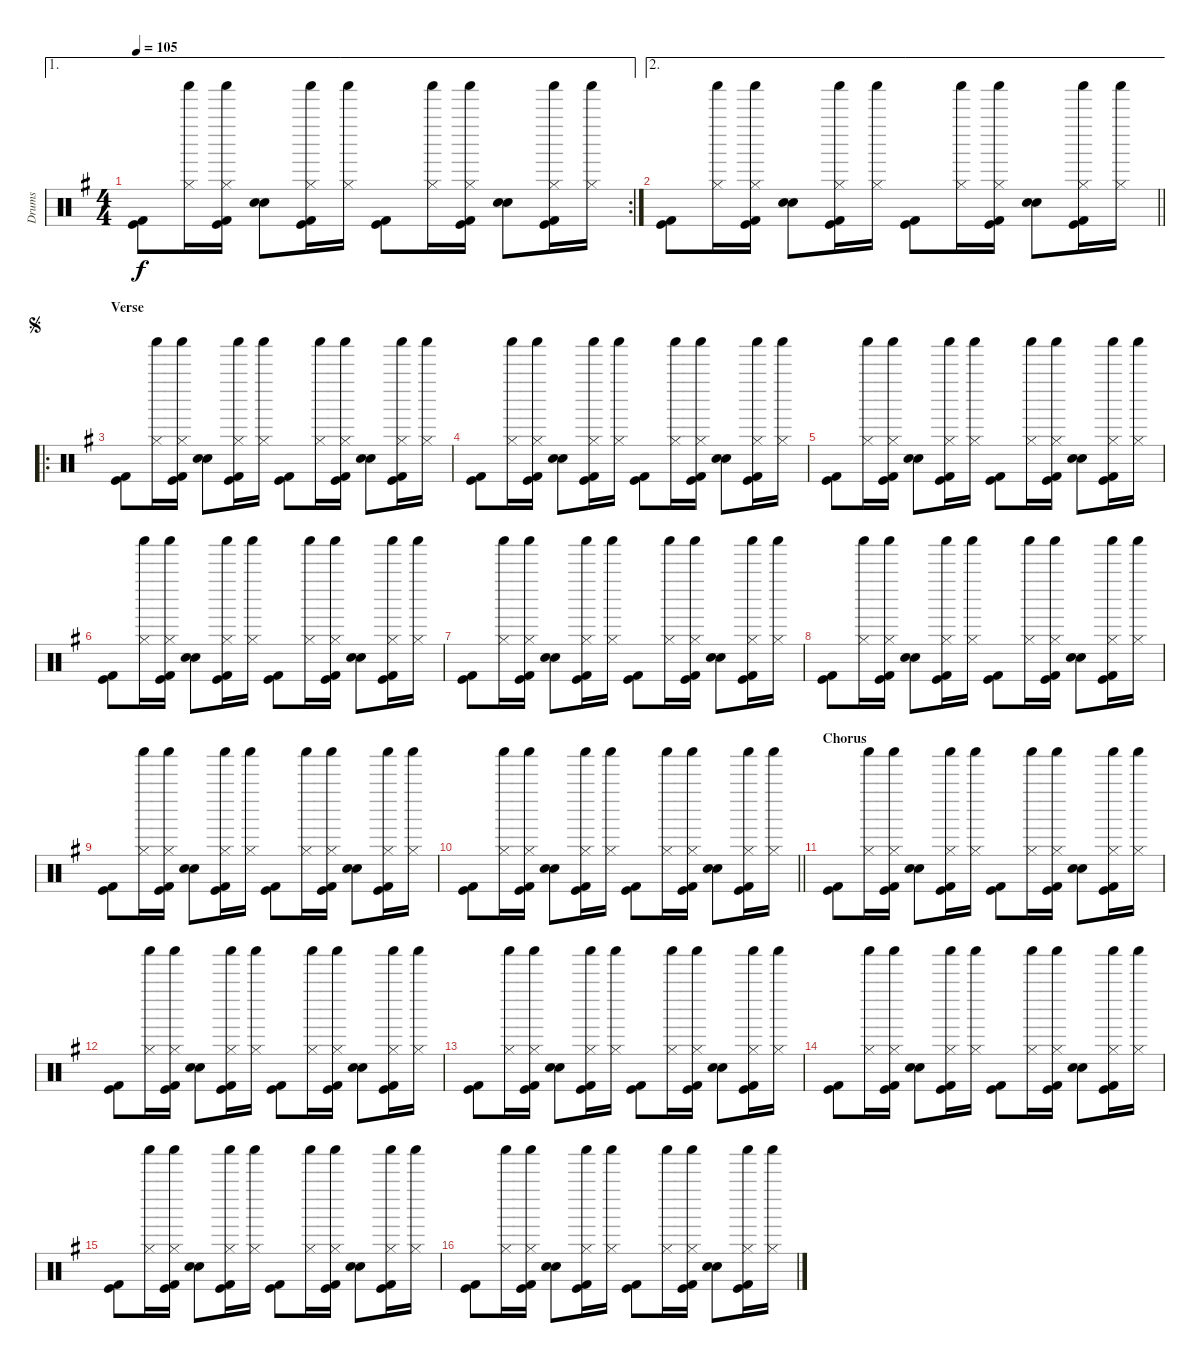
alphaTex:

\track ("Drums" "Drums") {instrument percussion}
\staff {score}
\articulation defaults
\ae 1
\rc 2
\ts (4 4)
\tempo 105
\clef neutral
\ks g
("Kick (hit)" "Kick (hit) 2").8{dy f} ("Shaker (hit)" "Hi-Hat (closed)").16 ("Shaker (hit)" "Hi-Hat (closed)" "Kick (hit)" "Kick (hit) 2").16 ("Electric Snare (hit)" "Snare (hit) 2").8 ("Shaker (hit)" "Hi-Hat (closed)" "Kick (hit)" "Kick (hit) 2").16 ("Shaker (hit)" "Hi-Hat (closed)").16 ("Kick (hit)" "Kick (hit) 2").8 ("Shaker (hit)" "Hi-Hat (closed)").16 ("Shaker (hit)" "Hi-Hat (closed)" "Kick (hit)" "Kick (hit) 2").16 ("Electric Snare (hit)" "Snare (hit) 2").8 ("Shaker (hit)" "Hi-Hat (closed)" "Kick (hit)" "Kick (hit) 2").16 ("Shaker (hit)" "Hi-Hat (closed)").16 |
\ae 2
\barLineRight lightlight
("Kick (hit)" "Kick (hit) 2").8 ("Shaker (hit)" "Hi-Hat (closed)").16 ("Shaker (hit)" "Hi-Hat (closed)" "Kick (hit)" "Kick (hit) 2").16 ("Electric Snare (hit)" "Snare (hit) 2").8 ("Shaker (hit)" "Hi-Hat (closed)" "Kick (hit)" "Kick (hit) 2").16 ("Shaker (hit)" "Hi-Hat (closed)").16 ("Kick (hit)" "Kick (hit) 2").8 ("Shaker (hit)" "Hi-Hat (closed)").16 ("Shaker (hit)" "Hi-Hat (closed)" "Kick (hit)" "Kick (hit) 2").16 ("Electric Snare (hit)" "Snare (hit) 2").8 ("Shaker (hit)" "Hi-Hat (closed)" "Kick (hit)" "Kick (hit) 2").16 ("Shaker (hit)" "Hi-Hat (closed)").16 |
\ro
\section ("" "Verse")
\jump segno
("Kick (hit)" "Kick (hit) 2").8 ("Shaker (hit)" "Hi-Hat (closed)").16 ("Shaker (hit)" "Hi-Hat (closed)" "Kick (hit)" "Kick (hit) 2").16 ("Electric Snare (hit)" "Snare (hit) 2").8 ("Shaker (hit)" "Hi-Hat (closed)" "Kick (hit)" "Kick (hit) 2").16 ("Shaker (hit)" "Hi-Hat (closed)").16 ("Kick (hit)" "Kick (hit) 2").8 ("Shaker (hit)" "Hi-Hat (closed)").16 ("Shaker (hit)" "Hi-Hat (closed)" "Kick (hit)" "Kick (hit) 2").16 ("Electric Snare (hit)" "Snare (hit) 2").8 ("Shaker (hit)" "Hi-Hat (closed)" "Kick (hit)" "Kick (hit) 2").16 ("Shaker (hit)" "Hi-Hat (closed)").16 |
("Kick (hit)" "Kick (hit) 2").8 ("Shaker (hit)" "Hi-Hat (closed)").16 ("Shaker (hit)" "Hi-Hat (closed)" "Kick (hit)" "Kick (hit) 2").16 ("Electric Snare (hit)" "Snare (hit) 2").8 ("Shaker (hit)" "Hi-Hat (closed)" "Kick (hit)" "Kick (hit) 2").16 ("Shaker (hit)" "Hi-Hat (closed)").16 ("Kick (hit)" "Kick (hit) 2").8 ("Shaker (hit)" "Hi-Hat (closed)").16 ("Shaker (hit)" "Hi-Hat (closed)" "Kick (hit)" "Kick (hit) 2").16 ("Electric Snare (hit)" "Snare (hit) 2").8 ("Shaker (hit)" "Hi-Hat (closed)" "Kick (hit)" "Kick (hit) 2").16 ("Shaker (hit)" "Hi-Hat (closed)").16 |
("Kick (hit)" "Kick (hit) 2").8 ("Shaker (hit)" "Hi-Hat (closed)").16 ("Shaker (hit)" "Hi-Hat (closed)" "Kick (hit)" "Kick (hit) 2").16 ("Electric Snare (hit)" "Snare (hit) 2").8 ("Shaker (hit)" "Hi-Hat (closed)" "Kick (hit)" "Kick (hit) 2").16 ("Shaker (hit)" "Hi-Hat (closed)").16 ("Kick (hit)" "Kick (hit) 2").8 ("Shaker (hit)" "Hi-Hat (closed)").16 ("Shaker (hit)" "Hi-Hat (closed)" "Kick (hit)" "Kick (hit) 2").16 ("Electric Snare (hit)" "Snare (hit) 2").8 ("Shaker (hit)" "Hi-Hat (closed)" "Kick (hit)" "Kick (hit) 2").16 ("Shaker (hit)" "Hi-Hat (closed)").16 |
("Kick (hit)" "Kick (hit) 2").8 ("Shaker (hit)" "Hi-Hat (closed)").16 ("Shaker (hit)" "Hi-Hat (closed)" "Kick (hit)" "Kick (hit) 2").16 ("Electric Snare (hit)" "Snare (hit) 2").8 ("Shaker (hit)" "Hi-Hat (closed)" "Kick (hit)" "Kick (hit) 2").16 ("Shaker (hit)" "Hi-Hat (closed)").16 ("Kick (hit)" "Kick (hit) 2").8 ("Shaker (hit)" "Hi-Hat (closed)").16 ("Shaker (hit)" "Hi-Hat (closed)" "Kick (hit)" "Kick (hit) 2").16 ("Electric Snare (hit)" "Snare (hit) 2").8 ("Shaker (hit)" "Hi-Hat (closed)" "Kick (hit)" "Kick (hit) 2").16 ("Shaker (hit)" "Hi-Hat (closed)").16 |
("Kick (hit)" "Kick (hit) 2").8 ("Shaker (hit)" "Hi-Hat (closed)").16 ("Shaker (hit)" "Hi-Hat (closed)" "Kick (hit)" "Kick (hit) 2").16 ("Electric Snare (hit)" "Snare (hit) 2").8 ("Shaker (hit)" "Hi-Hat (closed)" "Kick (hit)" "Kick (hit) 2").16 ("Shaker (hit)" "Hi-Hat (closed)").16 ("Kick (hit)" "Kick (hit) 2").8 ("Shaker (hit)" "Hi-Hat (closed)").16 ("Shaker (hit)" "Hi-Hat (closed)" "Kick (hit)" "Kick (hit) 2").16 ("Electric Snare (hit)" "Snare (hit) 2").8 ("Shaker (hit)" "Hi-Hat (closed)" "Kick (hit)" "Kick (hit) 2").16 ("Shaker (hit)" "Hi-Hat (closed)").16 |
("Kick (hit)" "Kick (hit) 2").8 ("Shaker (hit)" "Hi-Hat (closed)").16 ("Shaker (hit)" "Hi-Hat (closed)" "Kick (hit)" "Kick (hit) 2").16 ("Electric Snare (hit)" "Snare (hit) 2").8 ("Shaker (hit)" "Hi-Hat (closed)" "Kick (hit)" "Kick (hit) 2").16 ("Shaker (hit)" "Hi-Hat (closed)").16 ("Kick (hit)" "Kick (hit) 2").8 ("Shaker (hit)" "Hi-Hat (closed)").16 ("Shaker (hit)" "Hi-Hat (closed)" "Kick (hit)" "Kick (hit) 2").16 ("Electric Snare (hit)" "Snare (hit) 2").8 ("Shaker (hit)" "Hi-Hat (closed)" "Kick (hit)" "Kick (hit) 2").16 ("Shaker (hit)" "Hi-Hat (closed)").16 |
("Kick (hit)" "Kick (hit) 2").8 ("Shaker (hit)" "Hi-Hat (closed)").16 ("Shaker (hit)" "Hi-Hat (closed)" "Kick (hit)" "Kick (hit) 2").16 ("Electric Snare (hit)" "Snare (hit) 2").8 ("Shaker (hit)" "Hi-Hat (closed)" "Kick (hit)" "Kick (hit) 2").16 ("Shaker (hit)" "Hi-Hat (closed)").16 ("Kick (hit)" "Kick (hit) 2").8 ("Shaker (hit)" "Hi-Hat (closed)").16 ("Shaker (hit)" "Hi-Hat (closed)" "Kick (hit)" "Kick (hit) 2").16 ("Electric Snare (hit)" "Snare (hit) 2").8 ("Shaker (hit)" "Hi-Hat (closed)" "Kick (hit)" "Kick (hit) 2").16 ("Shaker (hit)" "Hi-Hat (closed)").16 |
\barLineRight lightlight
("Kick (hit)" "Kick (hit) 2").8 ("Shaker (hit)" "Hi-Hat (closed)").16 ("Shaker (hit)" "Hi-Hat (closed)" "Kick (hit)" "Kick (hit) 2").16 ("Electric Snare (hit)" "Snare (hit) 2").8 ("Shaker (hit)" "Hi-Hat (closed)" "Kick (hit)" "Kick (hit) 2").16 ("Shaker (hit)" "Hi-Hat (closed)").16 ("Kick (hit)" "Kick (hit) 2").8 ("Shaker (hit)" "Hi-Hat (closed)").16 ("Shaker (hit)" "Hi-Hat (closed)" "Kick (hit)" "Kick (hit) 2").16 ("Electric Snare (hit)" "Snare (hit) 2").8 ("Shaker (hit)" "Hi-Hat (closed)" "Kick (hit)" "Kick (hit) 2").16 ("Shaker (hit)" "Hi-Hat (closed)").16 |
\section ("" "Chorus")
("Kick (hit)" "Kick (hit) 2").8 ("Shaker (hit)" "Hi-Hat (closed)").16 ("Shaker (hit)" "Hi-Hat (closed)" "Kick (hit)" "Kick (hit) 2").16 ("Electric Snare (hit)" "Snare (hit) 2").8 ("Shaker (hit)" "Hi-Hat (closed)" "Kick (hit)" "Kick (hit) 2").16 ("Shaker (hit)" "Hi-Hat (closed)").16 ("Kick (hit)" "Kick (hit) 2").8 ("Shaker (hit)" "Hi-Hat (closed)").16 ("Shaker (hit)" "Hi-Hat (closed)" "Kick (hit)" "Kick (hit) 2").16 ("Electric Snare (hit)" "Snare (hit) 2").8 ("Shaker (hit)" "Hi-Hat (closed)" "Kick (hit)" "Kick (hit) 2").16 ("Shaker (hit)" "Hi-Hat (closed)").16 |
("Kick (hit)" "Kick (hit) 2").8 ("Shaker (hit)" "Hi-Hat (closed)").16 ("Shaker (hit)" "Hi-Hat (closed)" "Kick (hit)" "Kick (hit) 2").16 ("Electric Snare (hit)" "Snare (hit) 2").8 ("Shaker (hit)" "Hi-Hat (closed)" "Kick (hit)" "Kick (hit) 2").16 ("Shaker (hit)" "Hi-Hat (closed)").16 ("Kick (hit)" "Kick (hit) 2").8 ("Shaker (hit)" "Hi-Hat (closed)").16 ("Shaker (hit)" "Hi-Hat (closed)" "Kick (hit)" "Kick (hit) 2").16 ("Electric Snare (hit)" "Snare (hit) 2").8 ("Shaker (hit)" "Hi-Hat (closed)" "Kick (hit)" "Kick (hit) 2").16 ("Shaker (hit)" "Hi-Hat (closed)").16 |
("Kick (hit)" "Kick (hit) 2").8 ("Shaker (hit)" "Hi-Hat (closed)").16 ("Shaker (hit)" "Hi-Hat (closed)" "Kick (hit)" "Kick (hit) 2").16 ("Electric Snare (hit)" "Snare (hit) 2").8 ("Shaker (hit)" "Hi-Hat (closed)" "Kick (hit)" "Kick (hit) 2").16 ("Shaker (hit)" "Hi-Hat (closed)").16 ("Kick (hit)" "Kick (hit) 2").8 ("Shaker (hit)" "Hi-Hat (closed)").16 ("Shaker (hit)" "Hi-Hat (closed)" "Kick (hit)" "Kick (hit) 2").16 ("Electric Snare (hit)" "Snare (hit) 2").8 ("Shaker (hit)" "Hi-Hat (closed)" "Kick (hit)" "Kick (hit) 2").16 ("Shaker (hit)" "Hi-Hat (closed)").16 |
("Kick (hit)" "Kick (hit) 2").8 ("Shaker (hit)" "Hi-Hat (closed)").16 ("Shaker (hit)" "Hi-Hat (closed)" "Kick (hit)" "Kick (hit) 2").16 ("Electric Snare (hit)" "Snare (hit) 2").8 ("Shaker (hit)" "Hi-Hat (closed)" "Kick (hit)" "Kick (hit) 2").16 ("Shaker (hit)" "Hi-Hat (closed)").16 ("Kick (hit)" "Kick (hit) 2").8 ("Shaker (hit)" "Hi-Hat (closed)").16 ("Shaker (hit)" "Hi-Hat (closed)" "Kick (hit)" "Kick (hit) 2").16 ("Electric Snare (hit)" "Snare (hit) 2").8 ("Shaker (hit)" "Hi-Hat (closed)" "Kick (hit)" "Kick (hit) 2").16 ("Shaker (hit)" "Hi-Hat (closed)").16 |
("Kick (hit)" "Kick (hit) 2").8 ("Shaker (hit)" "Hi-Hat (closed)").16 ("Shaker (hit)" "Hi-Hat (closed)" "Kick (hit)" "Kick (hit) 2").16 ("Electric Snare (hit)" "Snare (hit) 2").8 ("Shaker (hit)" "Hi-Hat (closed)" "Kick (hit)" "Kick (hit) 2").16 ("Shaker (hit)" "Hi-Hat (closed)").16 ("Kick (hit)" "Kick (hit) 2").8 ("Shaker (hit)" "Hi-Hat (closed)").16 ("Shaker (hit)" "Hi-Hat (closed)" "Kick (hit)" "Kick (hit) 2").16 ("Electric Snare (hit)" "Snare (hit) 2").8 ("Shaker (hit)" "Hi-Hat (closed)" "Kick (hit)" "Kick (hit) 2").16 ("Shaker (hit)" "Hi-Hat (closed)").16 |
("Kick (hit)" "Kick (hit) 2").8 ("Shaker (hit)" "Hi-Hat (closed)").16 ("Shaker (hit)" "Hi-Hat (closed)" "Kick (hit)" "Kick (hit) 2").16 ("Electric Snare (hit)" "Snare (hit) 2").8 ("Shaker (hit)" "Hi-Hat (closed)" "Kick (hit)" "Kick (hit) 2").16 ("Shaker (hit)" "Hi-Hat (closed)").16 ("Kick (hit)" "Kick (hit) 2").8 ("Shaker (hit)" "Hi-Hat (closed)").16 ("Shaker (hit)" "Hi-Hat (closed)" "Kick (hit)" "Kick (hit) 2").16 ("Electric Snare (hit)" "Snare (hit) 2").8 ("Shaker (hit)" "Hi-Hat (closed)" "Kick (hit)" "Kick (hit) 2").16 ("Shaker (hit)" "Hi-Hat (closed)").16
